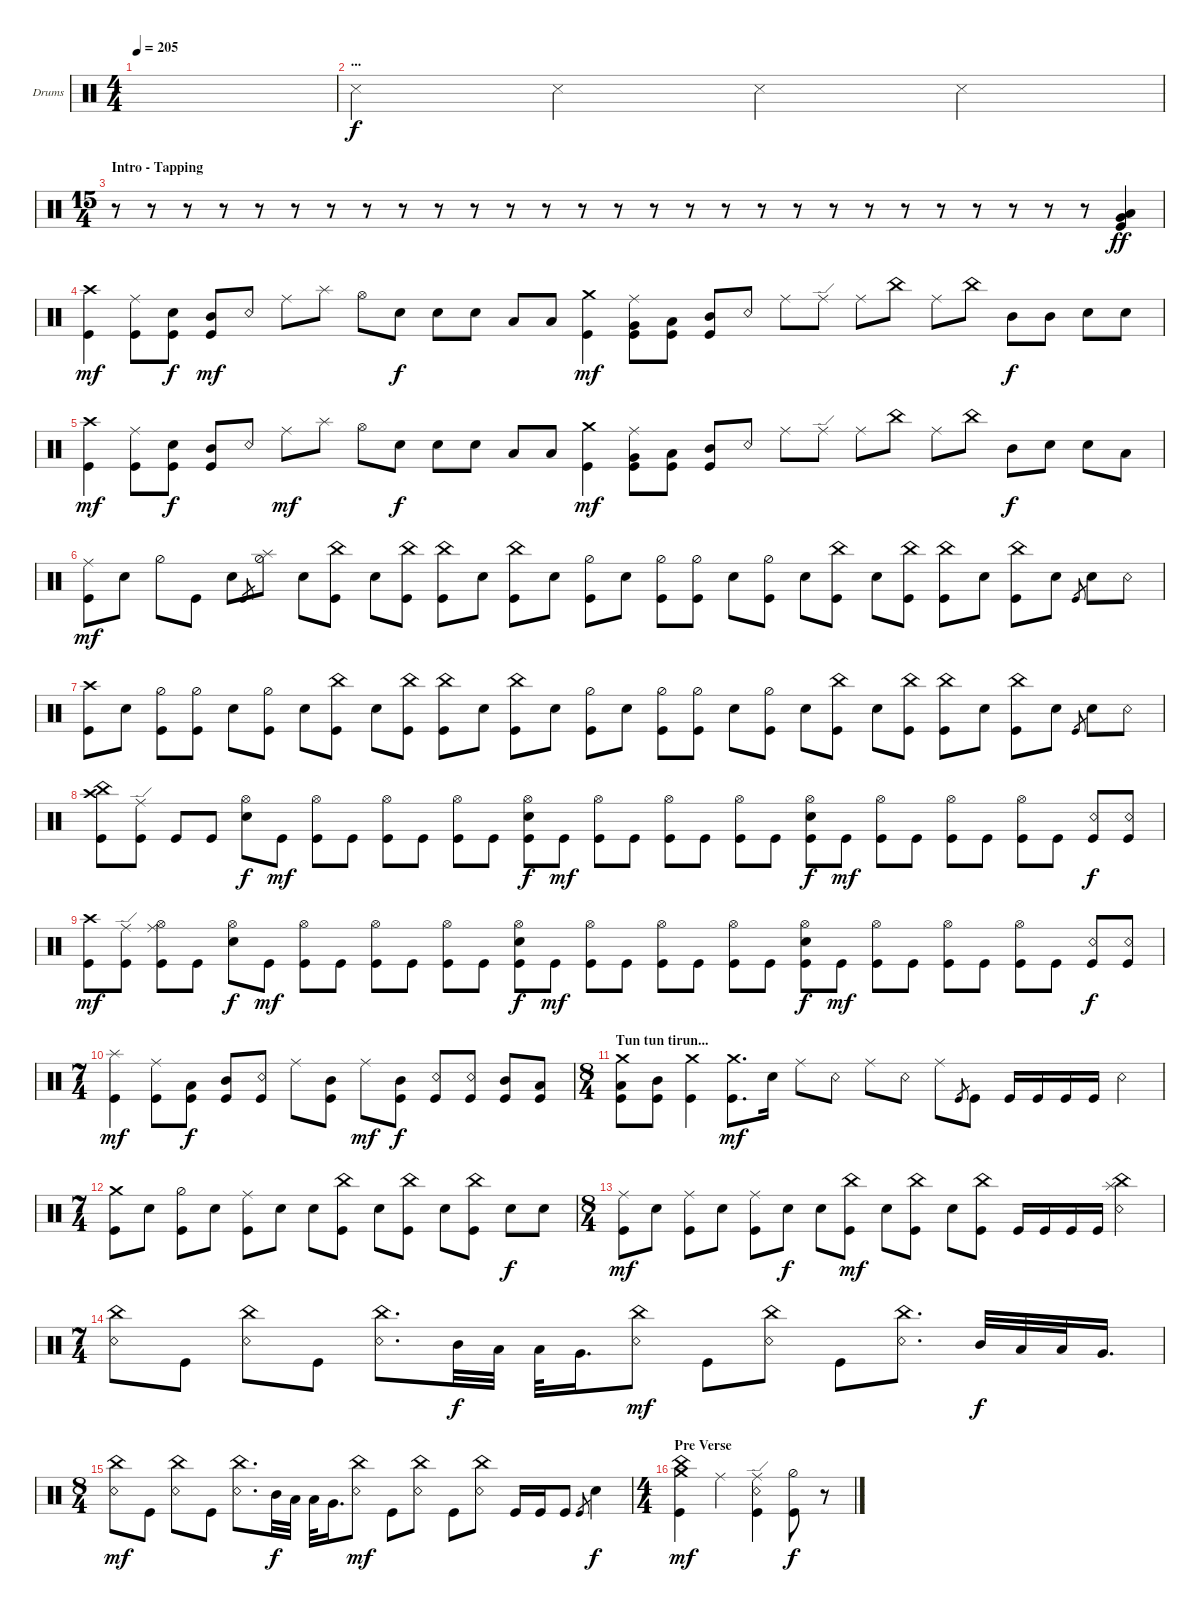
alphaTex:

\defaultSystemsLayout 4
\bracketExtendMode groupsimilarinstruments
\firstSystemTrackNameOrientation horizontal
\otherSystemsTrackNameOrientation horizontal
\track ("GordiBuena" "Drums") {instrument percussion}
\staff {score}
\articulation defaults
\ts (4 4)
\tempo 205
\clef neutral
\ks c
|
\section ("" "...")
"Snare (side stick) 3".4 "Snare (side stick) 3".4 "Snare (side stick) 3".4 "Snare (side stick) 3".4 |
\ts (15 4)
\section ("" "Intro - Tapping")
r.8 r.8 r.8 r.8 r.8 r.8 r.8 r.8 r.8 r.8 r.8 r.8 r.8 r.8 r.8 r.8 r.8 r.8 r.8 r.8 r.8 r.8 r.8 r.8 r.8 r.8 r.8 r.8 ("Very Low Tom (hit)" "Kick (hit)" "Low Tom (hit)").4{dy ff} |
("Kick (hit)" "Crash high (hit)").4{dy mf} ("Kick (hit)" "Ride (middle)").8 ("Kick (hit)" "Snare (hit) 2").8{dy f} ("Kick (hit)" "Mid Tom (hit)").8{dy mf} "Snare (rim shot)".8 "Ride (middle)".8 "Splash (hit)".8 "Hi-Hat (open)".8 "Snare (hit) 2".8{dy f} "Snare (hit) 2".8 "Snare (hit) 2".8 "Low Tom (hit)".8 "Low Tom (hit)".8 ("Kick (hit)" "Crash medium (hit)").4{dy mf} ("Kick (hit)" "Ride (middle)" "Very Low Tom (hit)").8 ("Kick (hit)" "Low Tom (hit)").8 ("Kick (hit)" "Mid Tom (hit)").8 "Snare (rim shot)".8 "Ride (middle)".8 "Ride (edge)".8 "Ride (middle)".8 "China (hit)".8 "Ride (middle)".8 "China (hit)".8 "Mid Tom (hit)".8{dy f} "Mid Tom (hit)".8 "Snare (hit) 2".8 "Snare (hit) 2".8 |
("Kick (hit)" "Crash high (hit)").4{dy mf} ("Kick (hit)" "Ride (middle)").8 ("Kick (hit)" "Snare (hit) 2").8{dy f} ("Kick (hit)" "Mid Tom (hit)").8 "Snare (rim shot)".8 "Ride (middle)".8{dy mf} "Splash (hit)".8 "Hi-Hat (open)".8 "Snare (hit) 2".8{dy f} "Snare (hit) 2".8 "Snare (hit) 2".8 "Low Tom (hit)".8 "Low Tom (hit)".8 ("Kick (hit)" "Crash medium (hit)").4{dy mf} ("Kick (hit)" "Ride (middle)" "Very Low Tom (hit)").8 ("Kick (hit)" "Low Tom (hit)").8 ("Kick (hit)" "Mid Tom (hit)").8 "Snare (rim shot)".8 "Ride (middle)".8 "Ride (edge)".8 "Ride (middle)".8 "China (hit)".8 "Ride (middle)".8 "China (hit)".8 "Mid Tom (hit)".8{dy f} "Snare (hit) 2".8 "Snare (hit) 2".8 "Low Tom (hit)".8 |
("Kick (hit)" "Ride (middle)").8{dy mf} "Snare (hit) 2".8 "Hi-Hat (half)".8 "Kick (hit)".8 "Snare (hit) 2".8 "Kick (hit)".8{gr} ("Splash (hit)" "Hi-Hat (half)").8 "Snare (hit) 2".8 ("Kick (hit)" "China (hit)").8 "Snare (hit) 2".8 ("Kick (hit)" "China (hit)").8 ("Kick (hit)" "China (hit)").8 "Snare (hit) 2".8 ("Kick (hit)" "China (hit)").8 "Snare (hit) 2".8 ("Kick (hit)" "Hi-Hat (half)").8 "Snare (hit) 2".8 ("Kick (hit)" "Hi-Hat (half)").8 ("Kick (hit)" "Hi-Hat (half)").8 "Snare (hit) 2".8 ("Kick (hit)" "Hi-Hat (half)").8 "Snare (hit) 2".8 ("Kick (hit)" "China (hit)").8 "Snare (hit) 2".8 ("Kick (hit)" "China (hit)").8 ("Kick (hit)" "China (hit)").8 "Snare (hit) 2".8 ("Kick (hit)" "China (hit)").8 "Snare (hit) 2".8 "Kick (hit)".8{gr} "Snare (hit) 2".8 "Snare (rim shot)".8 |
("Kick (hit)" "Crash high (hit)").8 "Snare (hit) 2".8 ("Kick (hit)" "Hi-Hat (half)").8 ("Kick (hit)" "Hi-Hat (half)").8 "Snare (hit) 2".8 ("Kick (hit)" "Hi-Hat (half)").8 "Snare (hit) 2".8 ("Kick (hit)" "China (hit)").8 "Snare (hit) 2".8 ("Kick (hit)" "China (hit)").8 ("Kick (hit)" "China (hit)").8 "Snare (hit) 2".8 ("Kick (hit)" "China (hit)").8 "Snare (hit) 2".8 ("Kick (hit)" "Hi-Hat (half)").8 "Snare (hit) 2".8 ("Kick (hit)" "Hi-Hat (half)").8 ("Kick (hit)" "Hi-Hat (half)").8 "Snare (hit) 2".8 ("Kick (hit)" "Hi-Hat (half)").8 "Snare (hit) 2".8 ("Kick (hit)" "China (hit)").8 "Snare (hit) 2".8 ("Kick (hit)" "China (hit)").8 ("Kick (hit)" "China (hit)").8 "Snare (hit) 2".8 ("Kick (hit)" "China (hit)").8 "Snare (hit) 2".8 "Kick (hit)".8{gr} "Snare (hit) 2".8 "Snare (rim shot)".8 |
("Kick (hit)" "Crash high (hit)" "China (hit)").8 ("Kick (hit)" "Ride (edge)").8 "Kick (hit)".8 "Kick (hit)".8 ("Hi-Hat (open)" "Snare (hit) 2").8{dy f} "Kick (hit)".8{dy mf} ("Kick (hit)" "Hi-Hat (open)").8 "Kick (hit)".8 ("Kick (hit)" "Hi-Hat (open)").8 "Kick (hit)".8 ("Kick (hit)" "Hi-Hat (open)").8 "Kick (hit)".8 ("Kick (hit)" "Hi-Hat (open)" "Snare (hit) 2").8{dy f} "Kick (hit)".8{dy mf} ("Kick (hit)" "Hi-Hat (open)").8 "Kick (hit)".8 ("Kick (hit)" "Hi-Hat (open)").8 "Kick (hit)".8 ("Kick (hit)" "Hi-Hat (open)").8 "Kick (hit)".8 ("Kick (hit)" "Hi-Hat (open)" "Snare (hit) 2").8{dy f} "Kick (hit)".8{dy mf} ("Kick (hit)" "Hi-Hat (open)").8 "Kick (hit)".8 ("Kick (hit)" "Hi-Hat (open)").8 "Kick (hit)".8 ("Kick (hit)" "Hi-Hat (open)").8 "Kick (hit)".8 ("Kick (hit)" "Snare (rim shot)").8{dy f} ("Kick (hit)" "Snare (rim shot)").8 |
("Kick (hit)" "Crash high (hit)").8{dy mf} ("Kick (hit)" "Ride (edge)").8 ("Kick (hit)" "Hi-Hat (open)" "Ride (middle)").8 "Kick (hit)".8 ("Hi-Hat (open)" "Snare (hit) 2").8{dy f} "Kick (hit)".8{dy mf} ("Kick (hit)" "Hi-Hat (open)").8 "Kick (hit)".8 ("Kick (hit)" "Hi-Hat (open)").8 "Kick (hit)".8 ("Kick (hit)" "Hi-Hat (open)").8 "Kick (hit)".8 ("Kick (hit)" "Hi-Hat (open)" "Snare (hit) 2").8{dy f} "Kick (hit)".8{dy mf} ("Kick (hit)" "Hi-Hat (open)").8 "Kick (hit)".8 ("Kick (hit)" "Hi-Hat (open)").8 "Kick (hit)".8 ("Kick (hit)" "Hi-Hat (open)").8 "Kick (hit)".8 ("Kick (hit)" "Hi-Hat (open)" "Snare (hit) 2").8{dy f} "Kick (hit)".8{dy mf} ("Kick (hit)" "Hi-Hat (open)").8 "Kick (hit)".8 ("Kick (hit)" "Hi-Hat (open)").8 "Kick (hit)".8 ("Kick (hit)" "Hi-Hat (open)").8 "Kick (hit)".8 ("Kick (hit)" "Snare (rim shot)").8{dy f} ("Kick (hit)" "Snare (rim shot)").8 |
\ts (7 4)
("Kick (hit)" "Splash (hit)").4{dy mf} ("Kick (hit)" "Ride (middle)").8 ("Kick (hit)" "Low Tom (hit)").8{dy f} ("Kick (hit)" "Mid Tom (hit)").8 ("Kick (hit)" "Snare (rim shot)").8 "Ride (middle)".8 ("Kick (hit)" "Mid Tom (hit)").8 "Ride (middle)".8{dy mf} ("Kick (hit)" "Mid Tom (hit)").8{dy f} ("Kick (hit)" "Snare (rim shot)").8 ("Kick (hit)" "Snare (rim shot)").8 ("Kick (hit)" "Mid Tom (hit)").8 ("Low Tom (hit)" "Kick (hit)").8 |
\ts (8 4)
\section ("" "Tun tun tirun...")
("Kick (hit)" "Low Tom (hit)" "Crash medium (hit)").8 ("Kick (hit)" "Mid Tom (hit)").8 ("Kick (hit)" "Crash medium (hit)").4 ("Kick (hit)" "Crash medium (hit)").8{d dy mf} "Snare (hit) 2".16 "Ride (middle)".8 "Snare (rim shot)".8 "Ride (middle)".8 "Snare (rim shot)".8 "Ride (middle)".8 "Kick (hit)".8{gr} "Kick (hit)".8 "Kick (hit)".16 "Kick (hit)".16 "Kick (hit)".16 "Kick (hit)".16 "Snare (rim shot)".4 |
\ts (7 4)
("Kick (hit)" "Crash medium (hit)").8 "Snare (hit) 2".8 ("Kick (hit)" "Hi-Hat (half)").8 "Snare (hit) 2".8 ("Kick (hit)" "Ride (middle)").8 "Snare (hit) 2".8 "Snare (hit) 2".8 ("Kick (hit)" "China (hit)").8 "Snare (hit) 2".8 ("Kick (hit)" "China (hit)").8 "Snare (hit) 2".8 ("Kick (hit)" "China (hit)").8 "Snare (hit) 2".8{dy f} "Snare (hit) 2".8 |
\ts (8 4)
("Kick (hit)" "Ride (middle)").8{dy mf} "Snare (hit) 2".8 ("Kick (hit)" "Ride (middle)").8 "Snare (hit) 2".8 ("Kick (hit)" "Ride (middle)").8 "Snare (hit) 2".8{dy f} "Snare (hit) 2".8 ("Kick (hit)" "China (hit)").8{dy mf} "Snare (hit) 2".8 ("Kick (hit)" "China (hit)").8 "Snare (hit) 2".8 ("Kick (hit)" "China (hit)").8 "Kick (hit)".16 "Kick (hit)".16 "Kick (hit)".16 "Kick (hit)".16 ("Snare (rim shot)" "Splash (hit)" "China (hit)").4 |
\ts (7 4)
("Snare (rim shot)" "China (hit)").8 "Kick (hit)".8 ("Snare (rim shot)" "China (hit)").8 "Kick (hit)".8 ("Snare (rim shot)" "China (hit)").8{d} "Mid Tom (hit)".32{dy f} "Low Tom (hit)".32 "Low Tom (hit)".32 "Very Low Tom (hit)".16{d} ("Snare (rim shot)" "China (hit)").8{dy mf} "Kick (hit)".8 ("Snare (rim shot)" "China (hit)").8 "Kick (hit)".8 ("Snare (rim shot)" "China (hit)").8{d} "Mid Tom (hit)".32{dy f} "Low Tom (hit)".32 "Low Tom (hit)".32 "Very Low Tom (hit)".16{d} |
\ts (8 4)
("Snare (rim shot)" "China (hit)").8{dy mf} "Kick (hit)".8 ("Snare (rim shot)" "China (hit)").8 "Kick (hit)".8 ("Snare (rim shot)" "China (hit)").8{d} "Mid Tom (hit)".32{dy f} "Low Tom (hit)".32 "Low Tom (hit)".32 "Very Low Tom (hit)".16{d} ("Snare (rim shot)" "China (hit)").8{dy mf} "Kick (hit)".8 ("Snare (rim shot)" "China (hit)").8 "Kick (hit)".8 ("Snare (rim shot)" "China (hit)").8 "Kick (hit)".16 "Kick (hit)".16 "Kick (hit)".8 "Kick (hit)".8{gr} "Snare (hit) 2".4{dy f} |
\ts (4 4)
\section ("" "Pre Verse")
("Kick (hit)" "Crash medium (hit)" "China (hit)").4{dy mf} "Ride (middle)".4 ("Kick (hit)" "Snare (rim shot)" "Ride (edge)").4 ("Hi-Hat (half)" "Kick (hit)").8{dy f} r.8
